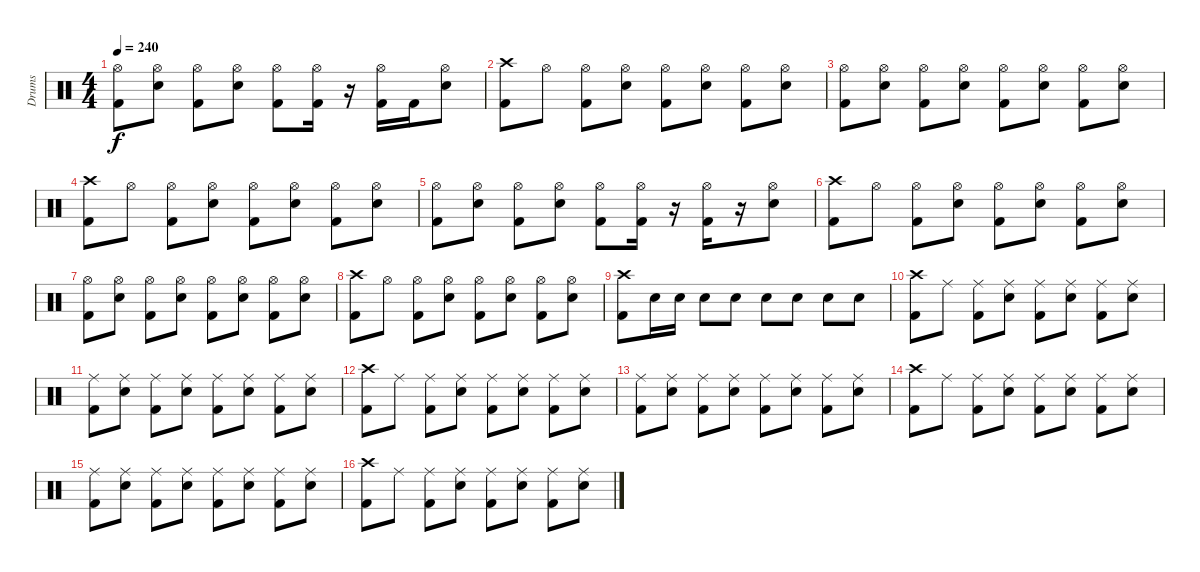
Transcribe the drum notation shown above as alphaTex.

\track ("Drums" "Drums") {instrument percussion}
\staff {score}
\articulation defaults
\ts (4 4)
\tempo 240
\clef neutral
\ks c
("Hi-Hat (open)" "Kick (hit) 2").8{dy f} ("Hi-Hat (open)" "Snare (hit) 2").8 ("Hi-Hat (open)" "Kick (hit) 2").8 ("Hi-Hat (open)" "Snare (hit) 2").8 ("Hi-Hat (open)" "Kick (hit) 2").8 ("Hi-Hat (open)" "Kick (hit) 2").16 r.16 ("Hi-Hat (open)" "Kick (hit) 2").16 "Kick (hit) 2".16 ("Hi-Hat (open)" "Snare (hit) 2").8 |
("Crash high (hit)" "Kick (hit) 2").8 "Hi-Hat (open)".8 ("Hi-Hat (open)" "Kick (hit) 2").8 ("Hi-Hat (open)" "Snare (hit) 2").8 ("Hi-Hat (open)" "Kick (hit) 2").8 ("Hi-Hat (open)" "Snare (hit) 2").8 ("Hi-Hat (open)" "Kick (hit) 2").8 ("Hi-Hat (open)" "Snare (hit) 2").8 |
("Hi-Hat (open)" "Kick (hit) 2").8 ("Hi-Hat (open)" "Snare (hit) 2").8 ("Hi-Hat (open)" "Kick (hit) 2").8 ("Hi-Hat (open)" "Snare (hit) 2").8 ("Hi-Hat (open)" "Kick (hit) 2").8 ("Hi-Hat (open)" "Snare (hit) 2").8 ("Hi-Hat (open)" "Kick (hit) 2").8 ("Hi-Hat (open)" "Snare (hit) 2").8 |
("Crash high (hit)" "Kick (hit) 2").8 "Hi-Hat (open)".8 ("Hi-Hat (open)" "Kick (hit) 2").8 ("Hi-Hat (open)" "Snare (hit) 2").8 ("Hi-Hat (open)" "Kick (hit) 2").8 ("Hi-Hat (open)" "Snare (hit) 2").8 ("Hi-Hat (open)" "Kick (hit) 2").8 ("Hi-Hat (open)" "Snare (hit) 2").8 |
("Hi-Hat (open)" "Kick (hit) 2").8 ("Hi-Hat (open)" "Snare (hit) 2").8 ("Hi-Hat (open)" "Kick (hit) 2").8 ("Hi-Hat (open)" "Snare (hit) 2").8 ("Hi-Hat (open)" "Kick (hit) 2").8 ("Hi-Hat (open)" "Kick (hit) 2").16 r.16 ("Hi-Hat (open)" "Kick (hit) 2").16 r.16 ("Hi-Hat (open)" "Snare (hit) 2").8 |
("Crash high (hit)" "Kick (hit) 2").8 "Hi-Hat (open)".8 ("Hi-Hat (open)" "Kick (hit) 2").8 ("Hi-Hat (open)" "Snare (hit) 2").8 ("Hi-Hat (open)" "Kick (hit) 2").8 ("Hi-Hat (open)" "Snare (hit) 2").8 ("Hi-Hat (open)" "Kick (hit) 2").8 ("Hi-Hat (open)" "Snare (hit) 2").8 |
("Hi-Hat (open)" "Kick (hit) 2").8 ("Hi-Hat (open)" "Snare (hit) 2").8 ("Hi-Hat (open)" "Kick (hit) 2").8 ("Hi-Hat (open)" "Snare (hit) 2").8 ("Hi-Hat (open)" "Kick (hit) 2").8 ("Hi-Hat (open)" "Snare (hit) 2").8 ("Hi-Hat (open)" "Kick (hit) 2").8 ("Hi-Hat (open)" "Snare (hit) 2").8 |
("Crash high (hit)" "Kick (hit) 2").8 "Hi-Hat (open)".8 ("Hi-Hat (open)" "Kick (hit) 2").8 ("Hi-Hat (open)" "Snare (hit) 2").8 ("Hi-Hat (open)" "Kick (hit) 2").8 ("Hi-Hat (open)" "Snare (hit) 2").8 ("Hi-Hat (open)" "Kick (hit) 2").8 ("Hi-Hat (open)" "Snare (hit) 2").8 |
("Crash high (hit)" "Kick (hit) 2").8 "Snare (hit) 2".16 "Snare (hit) 2".16 "Snare (hit) 2".8 "Snare (hit) 2".8 "Snare (hit) 2".8 "Snare (hit) 2".8 "Snare (hit) 2".8 "Snare (hit) 2".8 |
("Crash high (hit)" "Kick (hit) 2").8 "Ride (middle)".8 ("Ride (middle)" "Kick (hit) 2").8 ("Ride (middle)" "Snare (hit) 2").8 ("Ride (middle)" "Kick (hit) 2").8 ("Ride (middle)" "Snare (hit) 2").8 ("Ride (middle)" "Kick (hit) 2").8 ("Ride (middle)" "Snare (hit) 2").8 |
("Ride (middle)" "Kick (hit) 2").8 ("Ride (middle)" "Snare (hit) 2").8 ("Ride (middle)" "Kick (hit) 2").8 ("Ride (middle)" "Snare (hit) 2").8 ("Ride (middle)" "Kick (hit) 2").8 ("Ride (middle)" "Snare (hit) 2").8 ("Ride (middle)" "Kick (hit) 2").8 ("Ride (middle)" "Snare (hit) 2").8 |
("Crash high (hit)" "Kick (hit) 2").8 "Ride (middle)".8 ("Ride (middle)" "Kick (hit) 2").8 ("Ride (middle)" "Snare (hit) 2").8 ("Ride (middle)" "Kick (hit) 2").8 ("Ride (middle)" "Snare (hit) 2").8 ("Ride (middle)" "Kick (hit) 2").8 ("Ride (middle)" "Snare (hit) 2").8 |
("Ride (middle)" "Kick (hit) 2").8 ("Ride (middle)" "Snare (hit) 2").8 ("Ride (middle)" "Kick (hit) 2").8 ("Ride (middle)" "Snare (hit) 2").8 ("Ride (middle)" "Kick (hit) 2").8 ("Ride (middle)" "Snare (hit) 2").8 ("Ride (middle)" "Kick (hit) 2").8 ("Ride (middle)" "Snare (hit) 2").8 |
("Crash high (hit)" "Kick (hit) 2").8 "Ride (middle)".8 ("Ride (middle)" "Kick (hit) 2").8 ("Ride (middle)" "Snare (hit) 2").8 ("Ride (middle)" "Kick (hit) 2").8 ("Ride (middle)" "Snare (hit) 2").8 ("Ride (middle)" "Kick (hit) 2").8 ("Ride (middle)" "Snare (hit) 2").8 |
("Ride (middle)" "Kick (hit) 2").8 ("Ride (middle)" "Snare (hit) 2").8 ("Ride (middle)" "Kick (hit) 2").8 ("Ride (middle)" "Snare (hit) 2").8 ("Ride (middle)" "Kick (hit) 2").8 ("Ride (middle)" "Snare (hit) 2").8 ("Ride (middle)" "Kick (hit) 2").8 ("Ride (middle)" "Snare (hit) 2").8 |
("Crash high (hit)" "Kick (hit) 2").8 "Ride (middle)".8 ("Ride (middle)" "Kick (hit) 2").8 ("Ride (middle)" "Snare (hit) 2").8 ("Ride (middle)" "Kick (hit) 2").8 ("Ride (middle)" "Snare (hit) 2").8 ("Ride (middle)" "Kick (hit) 2").8 ("Ride (middle)" "Snare (hit) 2").8
